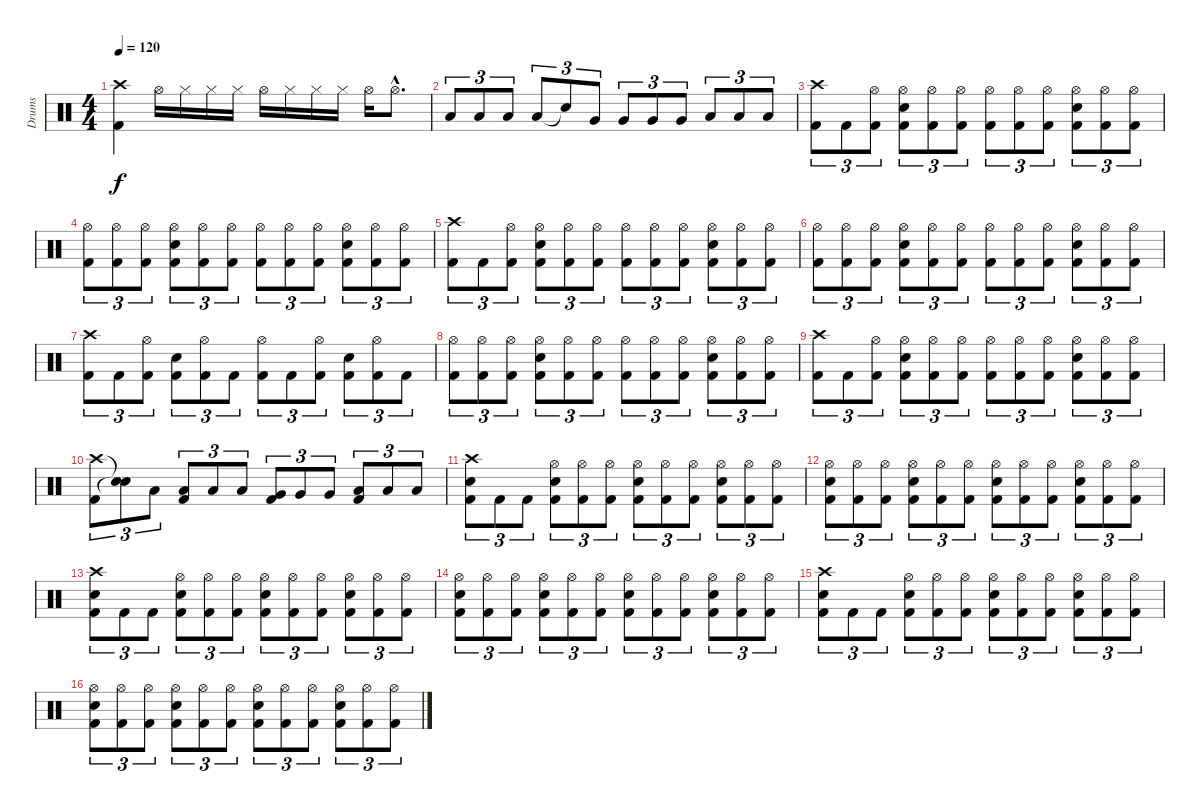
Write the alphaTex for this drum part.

\track ("Drums" "Drums") {instrument percussion}
\staff {score}
\articulation defaults
\ts (4 4)
\tempo 120
\clef neutral
\ks c
("Crash high (hit)" "Kick (hit) 2").4{dy f} "Hi-Hat (open)".16 "Hi-Hat (closed)".16 "Hi-Hat (closed)".16 "Hi-Hat (closed)".16 "Hi-Hat (open)".16 "Hi-Hat (closed)".16 "Hi-Hat (closed)".16 "Hi-Hat (closed)".16 "Hi-Hat (open)".16 "Hi-Hat (open)"{hac}.8{d} |
"Low Tom (hit)".8{tu (3 2)} "Low Tom (hit)".8{tu (3 2)} "Low Tom (hit)".8{tu (3 2)} "Low Tom (hit)".8{tu (3 2)} "Snare (hit)"{t}.8{tu (3 2)} "Very Low Tom (hit)".8{tu (3 2)} "Very Low Tom (hit)".8{tu (3 2)} "Very Low Tom (hit)".8{tu (3 2)} "Very Low Tom (hit)".8{tu (3 2)} "Low Floor Tom (hit)".8{tu (3 2)} "Low Floor Tom (hit)".8{tu (3 2)} "Low Floor Tom (hit)".8{tu (3 2)} |
("Crash high (hit)" "Kick (hit) 2").8{tu (3 2)} "Kick (hit) 2".8{tu (3 2)} ("Hi-Hat (open)" "Kick (hit) 2").8{tu (3 2)} ("Hi-Hat (open)" "Electric Snare (hit)" "Kick (hit) 2").8{tu (3 2)} ("Hi-Hat (open)" "Kick (hit) 2").8{tu (3 2)} ("Hi-Hat (open)" "Kick (hit) 2").8{tu (3 2)} ("Hi-Hat (open)" "Kick (hit) 2").8{tu (3 2)} ("Hi-Hat (open)" "Kick (hit) 2").8{tu (3 2)} ("Hi-Hat (open)" "Kick (hit) 2").8{tu (3 2)} ("Hi-Hat (open)" "Electric Snare (hit)" "Kick (hit) 2").8{tu (3 2)} ("Hi-Hat (open)" "Kick (hit) 2").8{tu (3 2)} ("Hi-Hat (open)" "Kick (hit) 2").8{tu (3 2)} |
("Hi-Hat (open)" "Kick (hit) 2").8{tu (3 2)} ("Hi-Hat (open)" "Kick (hit) 2").8{tu (3 2)} ("Hi-Hat (open)" "Kick (hit) 2").8{tu (3 2)} ("Hi-Hat (open)" "Electric Snare (hit)" "Kick (hit) 2").8{tu (3 2)} ("Hi-Hat (open)" "Kick (hit) 2").8{tu (3 2)} ("Hi-Hat (open)" "Kick (hit) 2").8{tu (3 2)} ("Hi-Hat (open)" "Kick (hit) 2").8{tu (3 2)} ("Hi-Hat (open)" "Kick (hit) 2").8{tu (3 2)} ("Hi-Hat (open)" "Kick (hit) 2").8{tu (3 2)} ("Hi-Hat (open)" "Electric Snare (hit)" "Kick (hit) 2").8{tu (3 2)} ("Hi-Hat (open)" "Kick (hit) 2").8{tu (3 2)} ("Hi-Hat (open)" "Kick (hit) 2").8{tu (3 2)} |
("Crash high (hit)" "Kick (hit) 2").8{tu (3 2)} "Kick (hit) 2".8{tu (3 2)} ("Hi-Hat (open)" "Kick (hit) 2").8{tu (3 2)} ("Hi-Hat (open)" "Electric Snare (hit)" "Kick (hit) 2").8{tu (3 2)} ("Hi-Hat (open)" "Kick (hit) 2").8{tu (3 2)} ("Hi-Hat (open)" "Kick (hit) 2").8{tu (3 2)} ("Hi-Hat (open)" "Kick (hit) 2").8{tu (3 2)} ("Hi-Hat (open)" "Kick (hit) 2").8{tu (3 2)} ("Hi-Hat (open)" "Kick (hit) 2").8{tu (3 2)} ("Hi-Hat (open)" "Electric Snare (hit)" "Kick (hit) 2").8{tu (3 2)} ("Hi-Hat (open)" "Kick (hit) 2").8{tu (3 2)} ("Hi-Hat (open)" "Kick (hit) 2").8{tu (3 2)} |
("Hi-Hat (open)" "Kick (hit) 2").8{tu (3 2)} ("Hi-Hat (open)" "Kick (hit) 2").8{tu (3 2)} ("Hi-Hat (open)" "Kick (hit) 2").8{tu (3 2)} ("Hi-Hat (open)" "Electric Snare (hit)" "Kick (hit) 2").8{tu (3 2)} ("Hi-Hat (open)" "Kick (hit) 2").8{tu (3 2)} ("Hi-Hat (open)" "Kick (hit) 2").8{tu (3 2)} ("Hi-Hat (open)" "Kick (hit) 2").8{tu (3 2)} ("Hi-Hat (open)" "Kick (hit) 2").8{tu (3 2)} ("Hi-Hat (open)" "Kick (hit) 2").8{tu (3 2)} ("Hi-Hat (open)" "Electric Snare (hit)" "Kick (hit) 2").8{tu (3 2)} ("Hi-Hat (open)" "Kick (hit) 2").8{tu (3 2)} ("Hi-Hat (open)" "Kick (hit) 2").8{tu (3 2)} |
("Crash high (hit)" "Kick (hit) 2").8{tu (3 2)} "Kick (hit) 2".8{tu (3 2)} ("Hi-Hat (open)" "Kick (hit) 2").8{tu (3 2)} ("Electric Snare (hit)" "Kick (hit) 2").8{tu (3 2)} ("Hi-Hat (open)" "Kick (hit) 2").8{tu (3 2)} "Kick (hit) 2".8{tu (3 2)} ("Hi-Hat (open)" "Kick (hit) 2").8{tu (3 2)} "Kick (hit) 2".8{tu (3 2)} ("Hi-Hat (open)" "Kick (hit) 2").8{tu (3 2)} ("Electric Snare (hit)" "Kick (hit) 2").8{tu (3 2)} ("Hi-Hat (open)" "Kick (hit) 2").8{tu (3 2)} "Kick (hit) 2".8{tu (3 2)} |
("Hi-Hat (open)" "Kick (hit) 2").8{tu (3 2)} ("Hi-Hat (open)" "Kick (hit) 2").8{tu (3 2)} ("Hi-Hat (open)" "Kick (hit) 2").8{tu (3 2)} ("Hi-Hat (open)" "Electric Snare (hit)" "Kick (hit) 2").8{tu (3 2)} ("Hi-Hat (open)" "Kick (hit) 2").8{tu (3 2)} ("Hi-Hat (open)" "Kick (hit) 2").8{tu (3 2)} ("Hi-Hat (open)" "Kick (hit) 2").8{tu (3 2)} ("Hi-Hat (open)" "Kick (hit) 2").8{tu (3 2)} ("Hi-Hat (open)" "Kick (hit) 2").8{tu (3 2)} ("Hi-Hat (open)" "Electric Snare (hit)" "Kick (hit) 2").8{tu (3 2)} ("Hi-Hat (open)" "Kick (hit) 2").8{tu (3 2)} ("Hi-Hat (open)" "Kick (hit) 2").8{tu (3 2)} |
("Crash high (hit)" "Kick (hit) 2").8{tu (3 2)} "Kick (hit) 2".8{tu (3 2)} ("Hi-Hat (open)" "Kick (hit) 2").8{tu (3 2)} ("Hi-Hat (open)" "Electric Snare (hit)" "Kick (hit) 2").8{tu (3 2)} ("Hi-Hat (open)" "Kick (hit) 2").8{tu (3 2)} ("Hi-Hat (open)" "Kick (hit) 2").8{tu (3 2)} ("Hi-Hat (open)" "Kick (hit) 2").8{tu (3 2)} ("Hi-Hat (open)" "Kick (hit) 2").8{tu (3 2)} ("Hi-Hat (open)" "Kick (hit) 2").8{tu (3 2)} ("Hi-Hat (open)" "Electric Snare (hit)" "Kick (hit) 2").8{tu (3 2)} ("Hi-Hat (open)" "Kick (hit) 2").8{tu (3 2)} ("Hi-Hat (open)" "Kick (hit) 2").8{tu (3 2)} |
("Crash high (hit)" "Kick (hit) 2").8{tu (3 2)} ("Snare (hit)"{t} "Snare (hit)"{t}).8{tu (3 2)} "Low Tom (hit)".8{tu (3 2)} ("Kick (hit) 2" "Low Tom (hit)").8{tu (3 2)} "Low Tom (hit)".8{tu (3 2)} "Low Tom (hit)".8{tu (3 2)} ("Kick (hit) 2" "Very Low Tom (hit)").8{tu (3 2)} "Very Low Tom (hit)".8{tu (3 2)} "Very Low Tom (hit)".8{tu (3 2)} ("Kick (hit) 2" "Low Floor Tom (hit)").8{tu (3 2)} "Low Floor Tom (hit)".8{tu (3 2)} "Low Floor Tom (hit)".8{tu (3 2)} |
("Crash high (hit)" "Electric Snare (hit)" "Kick (hit) 2").8{tu (3 2)} "Kick (hit) 2".8{tu (3 2)} "Kick (hit) 2".8{tu (3 2)} ("Hi-Hat (open)" "Electric Snare (hit)" "Kick (hit) 2").8{tu (3 2)} ("Hi-Hat (open)" "Kick (hit) 2").8{tu (3 2)} ("Hi-Hat (open)" "Kick (hit) 2").8{tu (3 2)} ("Hi-Hat (open)" "Electric Snare (hit)" "Kick (hit) 2").8{tu (3 2)} ("Hi-Hat (open)" "Kick (hit) 2").8{tu (3 2)} ("Hi-Hat (open)" "Kick (hit) 2").8{tu (3 2)} ("Hi-Hat (open)" "Electric Snare (hit)" "Kick (hit) 2").8{tu (3 2)} ("Hi-Hat (open)" "Kick (hit) 2").8{tu (3 2)} ("Hi-Hat (open)" "Kick (hit) 2").8{tu (3 2)} |
("Hi-Hat (open)" "Electric Snare (hit)" "Kick (hit) 2").8{tu (3 2)} ("Hi-Hat (open)" "Kick (hit) 2").8{tu (3 2)} ("Hi-Hat (open)" "Kick (hit) 2").8{tu (3 2)} ("Hi-Hat (open)" "Electric Snare (hit)" "Kick (hit) 2").8{tu (3 2)} ("Hi-Hat (open)" "Kick (hit) 2").8{tu (3 2)} ("Hi-Hat (open)" "Kick (hit) 2").8{tu (3 2)} ("Hi-Hat (open)" "Electric Snare (hit)" "Kick (hit) 2").8{tu (3 2)} ("Hi-Hat (open)" "Kick (hit) 2").8{tu (3 2)} ("Hi-Hat (open)" "Kick (hit) 2").8{tu (3 2)} ("Hi-Hat (open)" "Electric Snare (hit)" "Kick (hit) 2").8{tu (3 2)} ("Hi-Hat (open)" "Kick (hit) 2").8{tu (3 2)} ("Hi-Hat (open)" "Kick (hit) 2").8{tu (3 2)} |
("Crash high (hit)" "Electric Snare (hit)" "Kick (hit) 2").8{tu (3 2)} "Kick (hit) 2".8{tu (3 2)} "Kick (hit) 2".8{tu (3 2)} ("Hi-Hat (open)" "Electric Snare (hit)" "Kick (hit) 2").8{tu (3 2)} ("Hi-Hat (open)" "Kick (hit) 2").8{tu (3 2)} ("Hi-Hat (open)" "Kick (hit) 2").8{tu (3 2)} ("Hi-Hat (open)" "Electric Snare (hit)" "Kick (hit) 2").8{tu (3 2)} ("Hi-Hat (open)" "Kick (hit) 2").8{tu (3 2)} ("Hi-Hat (open)" "Kick (hit) 2").8{tu (3 2)} ("Hi-Hat (open)" "Electric Snare (hit)" "Kick (hit) 2").8{tu (3 2)} ("Hi-Hat (open)" "Kick (hit) 2").8{tu (3 2)} ("Hi-Hat (open)" "Kick (hit) 2").8{tu (3 2)} |
("Hi-Hat (open)" "Electric Snare (hit)" "Kick (hit) 2").8{tu (3 2)} ("Hi-Hat (open)" "Kick (hit) 2").8{tu (3 2)} ("Hi-Hat (open)" "Kick (hit) 2").8{tu (3 2)} ("Hi-Hat (open)" "Electric Snare (hit)" "Kick (hit) 2").8{tu (3 2)} ("Hi-Hat (open)" "Kick (hit) 2").8{tu (3 2)} ("Hi-Hat (open)" "Kick (hit) 2").8{tu (3 2)} ("Hi-Hat (open)" "Electric Snare (hit)" "Kick (hit) 2").8{tu (3 2)} ("Hi-Hat (open)" "Kick (hit) 2").8{tu (3 2)} ("Hi-Hat (open)" "Kick (hit) 2").8{tu (3 2)} ("Hi-Hat (open)" "Electric Snare (hit)" "Kick (hit) 2").8{tu (3 2)} ("Hi-Hat (open)" "Kick (hit) 2").8{tu (3 2)} ("Hi-Hat (open)" "Kick (hit) 2").8{tu (3 2)} |
("Crash high (hit)" "Electric Snare (hit)" "Kick (hit) 2").8{tu (3 2)} "Kick (hit) 2".8{tu (3 2)} "Kick (hit) 2".8{tu (3 2)} ("Hi-Hat (open)" "Electric Snare (hit)" "Kick (hit) 2").8{tu (3 2)} ("Hi-Hat (open)" "Kick (hit) 2").8{tu (3 2)} ("Hi-Hat (open)" "Kick (hit) 2").8{tu (3 2)} ("Hi-Hat (open)" "Electric Snare (hit)" "Kick (hit) 2").8{tu (3 2)} ("Hi-Hat (open)" "Kick (hit) 2").8{tu (3 2)} ("Hi-Hat (open)" "Kick (hit) 2").8{tu (3 2)} ("Hi-Hat (open)" "Electric Snare (hit)" "Kick (hit) 2").8{tu (3 2)} ("Hi-Hat (open)" "Kick (hit) 2").8{tu (3 2)} ("Hi-Hat (open)" "Kick (hit) 2").8{tu (3 2)} |
("Hi-Hat (open)" "Electric Snare (hit)" "Kick (hit) 2").8{tu (3 2)} ("Hi-Hat (open)" "Kick (hit) 2").8{tu (3 2)} ("Hi-Hat (open)" "Kick (hit) 2").8{tu (3 2)} ("Hi-Hat (open)" "Electric Snare (hit)" "Kick (hit) 2").8{tu (3 2)} ("Hi-Hat (open)" "Kick (hit) 2").8{tu (3 2)} ("Hi-Hat (open)" "Kick (hit) 2").8{tu (3 2)} ("Hi-Hat (open)" "Electric Snare (hit)" "Kick (hit) 2").8{tu (3 2)} ("Hi-Hat (open)" "Kick (hit) 2").8{tu (3 2)} ("Hi-Hat (open)" "Kick (hit) 2").8{tu (3 2)} ("Hi-Hat (open)" "Electric Snare (hit)" "Kick (hit) 2").8{tu (3 2)} ("Hi-Hat (open)" "Kick (hit) 2").8{tu (3 2)} ("Hi-Hat (open)" "Kick (hit) 2").8{tu (3 2)}
